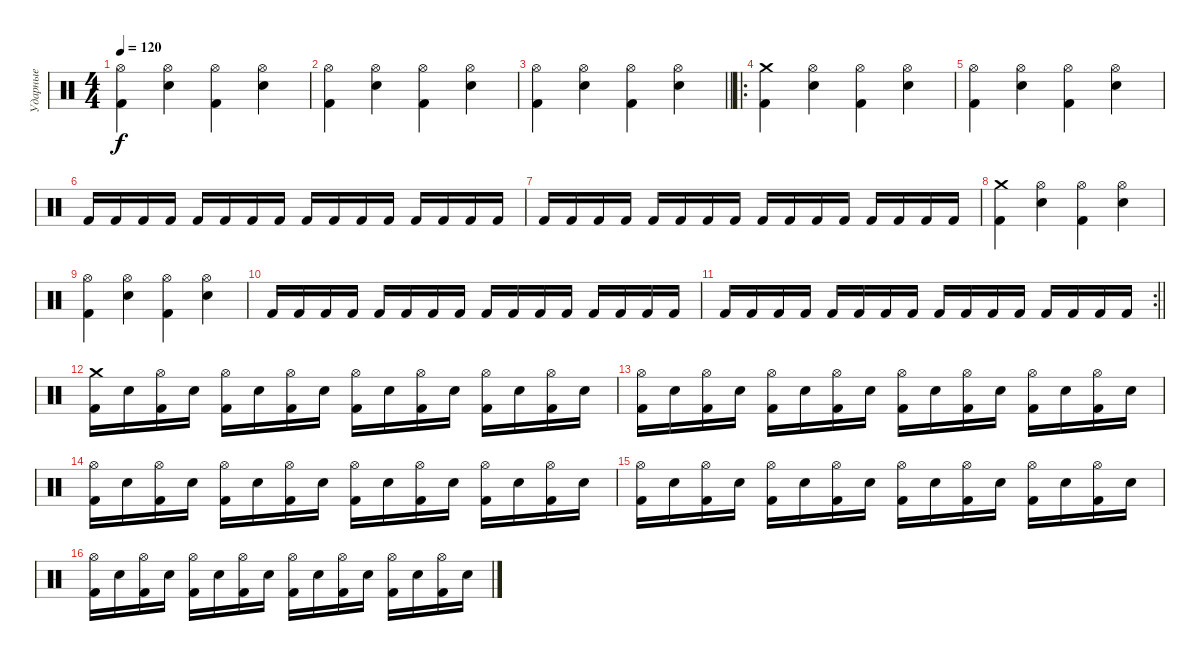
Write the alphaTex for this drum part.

\track ("Ударные" "Ударные") {instrument percussion}
\staff {score}
\articulation defaults
\ts (4 4)
\tempo 120
\clef neutral
\ks c
("Kick (hit) 2" "Hi-Hat (open)").4{dy f} ("Electric Snare (hit)" "Hi-Hat (open)").4 ("Kick (hit) 2" "Hi-Hat (open)").4 ("Electric Snare (hit)" "Hi-Hat (open)").4 |
("Kick (hit) 2" "Hi-Hat (open)").4 ("Electric Snare (hit)" "Hi-Hat (open)").4 ("Kick (hit) 2" "Hi-Hat (open)").4 ("Electric Snare (hit)" "Hi-Hat (open)").4 |
\barLineRight lightlight
("Kick (hit) 2" "Hi-Hat (open)").4 ("Electric Snare (hit)" "Hi-Hat (open)").4 ("Kick (hit) 2" "Hi-Hat (open)").4 ("Electric Snare (hit)" "Hi-Hat (open)").4 |
\ro
\section ("" "")
("Kick (hit) 2" "Crash medium (hit)").4 ("Electric Snare (hit)" "Hi-Hat (open)").4 ("Kick (hit) 2" "Hi-Hat (open)").4 ("Electric Snare (hit)" "Hi-Hat (open)").4 |
("Kick (hit) 2" "Hi-Hat (open)").4 ("Electric Snare (hit)" "Hi-Hat (open)").4 ("Kick (hit) 2" "Hi-Hat (open)").4 ("Electric Snare (hit)" "Hi-Hat (open)").4 |
"Kick (hit) 2".16 "Kick (hit) 2".16 "Kick (hit) 2".16 "Kick (hit) 2".16 "Kick (hit) 2".16 "Kick (hit) 2".16 "Kick (hit) 2".16 "Kick (hit) 2".16 "Kick (hit) 2".16 "Kick (hit) 2".16 "Kick (hit) 2".16 "Kick (hit) 2".16 "Kick (hit) 2".16 "Kick (hit) 2".16 "Kick (hit) 2".16 "Kick (hit) 2".16 |
"Kick (hit) 2".16 "Kick (hit) 2".16 "Kick (hit) 2".16 "Kick (hit) 2".16 "Kick (hit) 2".16 "Kick (hit) 2".16 "Kick (hit) 2".16 "Kick (hit) 2".16 "Kick (hit) 2".16 "Kick (hit) 2".16 "Kick (hit) 2".16 "Kick (hit) 2".16 "Kick (hit) 2".16 "Kick (hit) 2".16 "Kick (hit) 2".16 "Kick (hit) 2".16 |
("Kick (hit) 2" "Crash medium (hit)").4 ("Electric Snare (hit)" "Hi-Hat (open)").4 ("Kick (hit) 2" "Hi-Hat (open)").4 ("Electric Snare (hit)" "Hi-Hat (open)").4 |
("Kick (hit) 2" "Hi-Hat (open)").4 ("Electric Snare (hit)" "Hi-Hat (open)").4 ("Kick (hit) 2" "Hi-Hat (open)").4 ("Electric Snare (hit)" "Hi-Hat (open)").4 |
"Kick (hit) 2".16 "Kick (hit) 2".16 "Kick (hit) 2".16 "Kick (hit) 2".16 "Kick (hit) 2".16 "Kick (hit) 2".16 "Kick (hit) 2".16 "Kick (hit) 2".16 "Kick (hit) 2".16 "Kick (hit) 2".16 "Kick (hit) 2".16 "Kick (hit) 2".16 "Kick (hit) 2".16 "Kick (hit) 2".16 "Kick (hit) 2".16 "Kick (hit) 2".16 |
\rc 2
\barLineRight lightlight "Kick (hit) 2".16 "Kick (hit) 2".16 "Kick (hit) 2".16 "Kick (hit) 2".16 "Kick (hit) 2".16 "Kick (hit) 2".16 "Kick (hit) 2".16 "Kick (hit) 2".16 "Kick (hit) 2".16 "Kick (hit) 2".16 "Kick (hit) 2".16 "Kick (hit) 2".16 "Kick (hit) 2".16 "Kick (hit) 2".16 "Kick (hit) 2".16 "Kick (hit) 2".16
|
\section ("" "")
("Kick (hit) 2" "Crash medium (hit)").16 "Electric Snare (hit)".16 ("Kick (hit) 2" "Hi-Hat (open)").16 "Electric Snare (hit)".16 ("Kick (hit) 2" "Hi-Hat (open)").16 "Electric Snare (hit)".16 ("Kick (hit) 2" "Hi-Hat (open)").16 "Electric Snare (hit)".16 ("Kick (hit) 2" "Hi-Hat (open)").16 "Electric Snare (hit)".16 ("Kick (hit) 2" "Hi-Hat (open)").16 "Electric Snare (hit)".16 ("Kick (hit) 2" "Hi-Hat (open)").16 "Electric Snare (hit)".16 ("Kick (hit) 2" "Hi-Hat (open)").16 "Electric Snare (hit)".16 |
("Kick (hit) 2" "Hi-Hat (open)").16 "Electric Snare (hit)".16 ("Kick (hit) 2" "Hi-Hat (open)").16 "Electric Snare (hit)".16 ("Kick (hit) 2" "Hi-Hat (open)").16 "Electric Snare (hit)".16 ("Kick (hit) 2" "Hi-Hat (open)").16 "Electric Snare (hit)".16 ("Kick (hit) 2" "Hi-Hat (open)").16 "Electric Snare (hit)".16 ("Kick (hit) 2" "Hi-Hat (open)").16 "Electric Snare (hit)".16 ("Kick (hit) 2" "Hi-Hat (open)").16 "Electric Snare (hit)".16 ("Kick (hit) 2" "Hi-Hat (open)").16 "Electric Snare (hit)".16 |
("Kick (hit) 2" "Hi-Hat (open)").16 "Electric Snare (hit)".16 ("Kick (hit) 2" "Hi-Hat (open)").16 "Electric Snare (hit)".16 ("Kick (hit) 2" "Hi-Hat (open)").16 "Electric Snare (hit)".16 ("Kick (hit) 2" "Hi-Hat (open)").16 "Electric Snare (hit)".16 ("Kick (hit) 2" "Hi-Hat (open)").16 "Electric Snare (hit)".16 ("Kick (hit) 2" "Hi-Hat (open)").16 "Electric Snare (hit)".16 ("Kick (hit) 2" "Hi-Hat (open)").16 "Electric Snare (hit)".16 ("Kick (hit) 2" "Hi-Hat (open)").16 "Electric Snare (hit)".16 |
("Kick (hit) 2" "Hi-Hat (open)").16 "Electric Snare (hit)".16 ("Kick (hit) 2" "Hi-Hat (open)").16 "Electric Snare (hit)".16 ("Kick (hit) 2" "Hi-Hat (open)").16 "Electric Snare (hit)".16 ("Kick (hit) 2" "Hi-Hat (open)").16 "Electric Snare (hit)".16 ("Kick (hit) 2" "Hi-Hat (open)").16 "Electric Snare (hit)".16 ("Kick (hit) 2" "Hi-Hat (open)").16 "Electric Snare (hit)".16 ("Kick (hit) 2" "Hi-Hat (open)").16 "Electric Snare (hit)".16 ("Kick (hit) 2" "Hi-Hat (open)").16 "Electric Snare (hit)".16 |
("Kick (hit) 2" "Hi-Hat (open)").16 "Electric Snare (hit)".16 ("Kick (hit) 2" "Hi-Hat (open)").16 "Electric Snare (hit)".16 ("Kick (hit) 2" "Hi-Hat (open)").16 "Electric Snare (hit)".16 ("Kick (hit) 2" "Hi-Hat (open)").16 "Electric Snare (hit)".16 ("Kick (hit) 2" "Hi-Hat (open)").16 "Electric Snare (hit)".16 ("Kick (hit) 2" "Hi-Hat (open)").16 "Electric Snare (hit)".16 ("Kick (hit) 2" "Hi-Hat (open)").16 "Electric Snare (hit)".16 ("Kick (hit) 2" "Hi-Hat (open)").16 "Electric Snare (hit)".16
